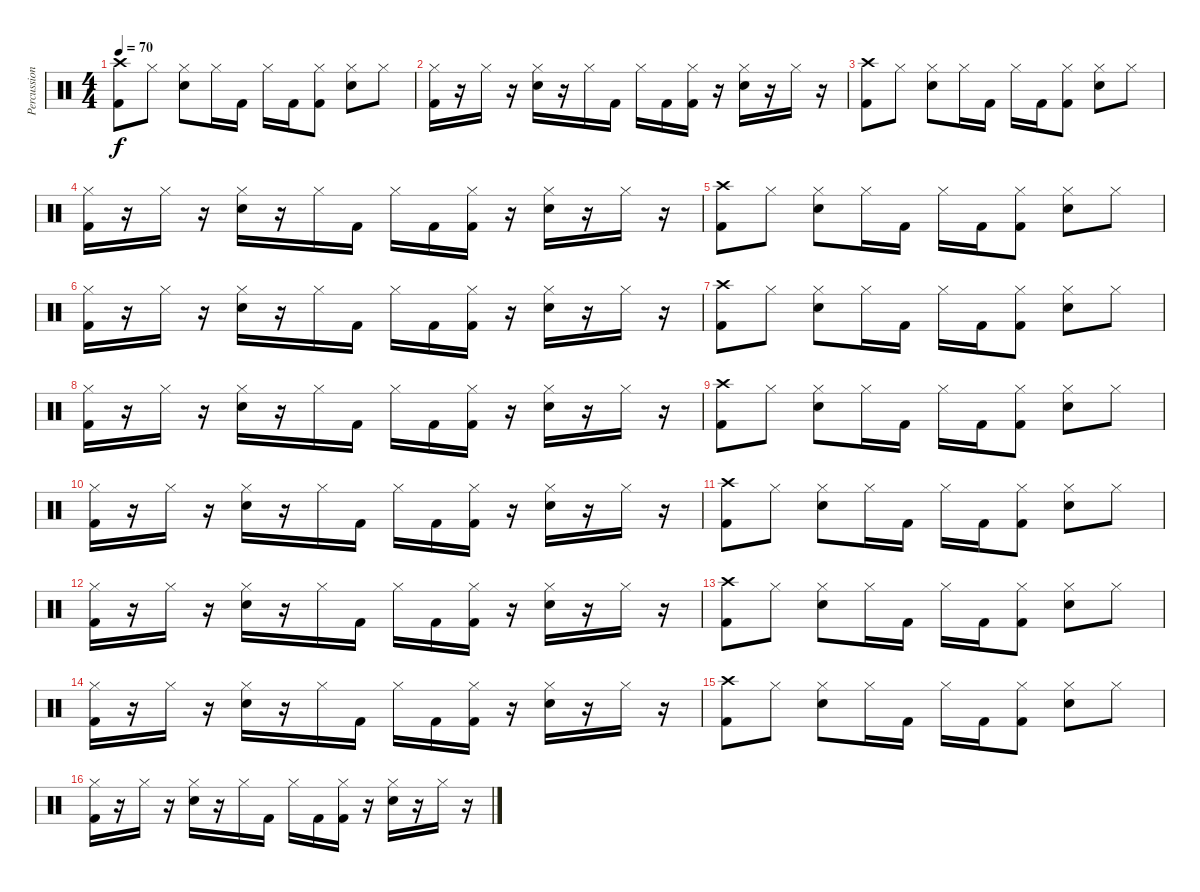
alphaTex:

\track ("Percussion" "Percussion") {instrument percussion}
\staff {score}
\articulation defaults
\ts (4 4)
\tempo 70
\clef neutral
\ks c
("Crash high (hit)" "Kick (hit) 2").8{dy f} "Hi-Hat (closed)".8 ("Hi-Hat (closed)" "Snare (hit) 2").8 "Hi-Hat (closed)".16 "Kick (hit) 2".16 "Hi-Hat (closed)".16 "Kick (hit) 2".16 ("Hi-Hat (closed)" "Kick (hit) 2").8 ("Hi-Hat (closed)" "Snare (hit) 2").8 "Hi-Hat (closed)".8 |
("Hi-Hat (closed)" "Kick (hit) 2").16 r.16 "Hi-Hat (closed)".16 r.16 ("Hi-Hat (closed)" "Snare (hit) 2").16 r.16 "Hi-Hat (closed)".16 "Kick (hit) 2".16 "Hi-Hat (closed)".16 "Kick (hit) 2".16 ("Hi-Hat (closed)" "Kick (hit) 2").16 r.16 ("Hi-Hat (closed)" "Snare (hit) 2").16 r.16 "Hi-Hat (closed)".16 r.16 |
("Crash high (hit)" "Kick (hit) 2").8 "Hi-Hat (closed)".8 ("Hi-Hat (closed)" "Snare (hit) 2").8 "Hi-Hat (closed)".16 "Kick (hit) 2".16 "Hi-Hat (closed)".16 "Kick (hit) 2".16 ("Hi-Hat (closed)" "Kick (hit) 2").8 ("Hi-Hat (closed)" "Snare (hit) 2").8 "Hi-Hat (closed)".8 |
("Hi-Hat (closed)" "Kick (hit) 2").16 r.16 "Hi-Hat (closed)".16 r.16 ("Hi-Hat (closed)" "Snare (hit) 2").16 r.16 "Hi-Hat (closed)".16 "Kick (hit) 2".16 "Hi-Hat (closed)".16 "Kick (hit) 2".16 ("Hi-Hat (closed)" "Kick (hit) 2").16 r.16 ("Hi-Hat (closed)" "Snare (hit) 2").16 r.16 "Hi-Hat (closed)".16 r.16 |
("Crash high (hit)" "Kick (hit) 2").8 "Hi-Hat (closed)".8 ("Hi-Hat (closed)" "Snare (hit) 2").8 "Hi-Hat (closed)".16 "Kick (hit) 2".16 "Hi-Hat (closed)".16 "Kick (hit) 2".16 ("Hi-Hat (closed)" "Kick (hit) 2").8 ("Hi-Hat (closed)" "Snare (hit) 2").8 "Hi-Hat (closed)".8 |
("Hi-Hat (closed)" "Kick (hit) 2").16 r.16 "Hi-Hat (closed)".16 r.16 ("Hi-Hat (closed)" "Snare (hit) 2").16 r.16 "Hi-Hat (closed)".16 "Kick (hit) 2".16 "Hi-Hat (closed)".16 "Kick (hit) 2".16 ("Hi-Hat (closed)" "Kick (hit) 2").16 r.16 ("Hi-Hat (closed)" "Snare (hit) 2").16 r.16 "Hi-Hat (closed)".16 r.16 |
("Crash high (hit)" "Kick (hit) 2").8 "Hi-Hat (closed)".8 ("Hi-Hat (closed)" "Snare (hit) 2").8 "Hi-Hat (closed)".16 "Kick (hit) 2".16 "Hi-Hat (closed)".16 "Kick (hit) 2".16 ("Hi-Hat (closed)" "Kick (hit) 2").8 ("Hi-Hat (closed)" "Snare (hit) 2").8 "Hi-Hat (closed)".8 |
("Hi-Hat (closed)" "Kick (hit) 2").16 r.16 "Hi-Hat (closed)".16 r.16 ("Hi-Hat (closed)" "Snare (hit) 2").16 r.16 "Hi-Hat (closed)".16 "Kick (hit) 2".16 "Hi-Hat (closed)".16 "Kick (hit) 2".16 ("Hi-Hat (closed)" "Kick (hit) 2").16 r.16 ("Hi-Hat (closed)" "Snare (hit) 2").16 r.16 "Hi-Hat (closed)".16 r.16 |
("Crash high (hit)" "Kick (hit) 2").8 "Hi-Hat (closed)".8 ("Hi-Hat (closed)" "Snare (hit) 2").8 "Hi-Hat (closed)".16 "Kick (hit) 2".16 "Hi-Hat (closed)".16 "Kick (hit) 2".16 ("Hi-Hat (closed)" "Kick (hit) 2").8 ("Hi-Hat (closed)" "Snare (hit) 2").8 "Hi-Hat (closed)".8 |
("Hi-Hat (closed)" "Kick (hit) 2").16 r.16 "Hi-Hat (closed)".16 r.16 ("Hi-Hat (closed)" "Snare (hit) 2").16 r.16 "Hi-Hat (closed)".16 "Kick (hit) 2".16 "Hi-Hat (closed)".16 "Kick (hit) 2".16 ("Hi-Hat (closed)" "Kick (hit) 2").16 r.16 ("Hi-Hat (closed)" "Snare (hit) 2").16 r.16 "Hi-Hat (closed)".16 r.16 |
("Crash high (hit)" "Kick (hit) 2").8 "Hi-Hat (closed)".8 ("Hi-Hat (closed)" "Snare (hit) 2").8 "Hi-Hat (closed)".16 "Kick (hit) 2".16 "Hi-Hat (closed)".16 "Kick (hit) 2".16 ("Hi-Hat (closed)" "Kick (hit) 2").8 ("Hi-Hat (closed)" "Snare (hit) 2").8 "Hi-Hat (closed)".8 |
("Hi-Hat (closed)" "Kick (hit) 2").16 r.16 "Hi-Hat (closed)".16 r.16 ("Hi-Hat (closed)" "Snare (hit) 2").16 r.16 "Hi-Hat (closed)".16 "Kick (hit) 2".16 "Hi-Hat (closed)".16 "Kick (hit) 2".16 ("Hi-Hat (closed)" "Kick (hit) 2").16 r.16 ("Hi-Hat (closed)" "Snare (hit) 2").16 r.16 "Hi-Hat (closed)".16 r.16 |
("Crash high (hit)" "Kick (hit) 2").8 "Hi-Hat (closed)".8 ("Hi-Hat (closed)" "Snare (hit) 2").8 "Hi-Hat (closed)".16 "Kick (hit) 2".16 "Hi-Hat (closed)".16 "Kick (hit) 2".16 ("Hi-Hat (closed)" "Kick (hit) 2").8 ("Hi-Hat (closed)" "Snare (hit) 2").8 "Hi-Hat (closed)".8 |
("Hi-Hat (closed)" "Kick (hit) 2").16 r.16 "Hi-Hat (closed)".16 r.16 ("Hi-Hat (closed)" "Snare (hit) 2").16 r.16 "Hi-Hat (closed)".16 "Kick (hit) 2".16 "Hi-Hat (closed)".16 "Kick (hit) 2".16 ("Hi-Hat (closed)" "Kick (hit) 2").16 r.16 ("Hi-Hat (closed)" "Snare (hit) 2").16 r.16 "Hi-Hat (closed)".16 r.16 |
("Crash high (hit)" "Kick (hit) 2").8 "Hi-Hat (closed)".8 ("Hi-Hat (closed)" "Snare (hit) 2").8 "Hi-Hat (closed)".16 "Kick (hit) 2".16 "Hi-Hat (closed)".16 "Kick (hit) 2".16 ("Hi-Hat (closed)" "Kick (hit) 2").8 ("Hi-Hat (closed)" "Snare (hit) 2").8 "Hi-Hat (closed)".8 |
("Hi-Hat (closed)" "Kick (hit) 2").16 r.16 "Hi-Hat (closed)".16 r.16 ("Hi-Hat (closed)" "Snare (hit) 2").16 r.16 "Hi-Hat (closed)".16 "Kick (hit) 2".16 "Hi-Hat (closed)".16 "Kick (hit) 2".16 ("Hi-Hat (closed)" "Kick (hit) 2").16 r.16 ("Hi-Hat (closed)" "Snare (hit) 2").16 r.16 "Hi-Hat (closed)".16 r.16
